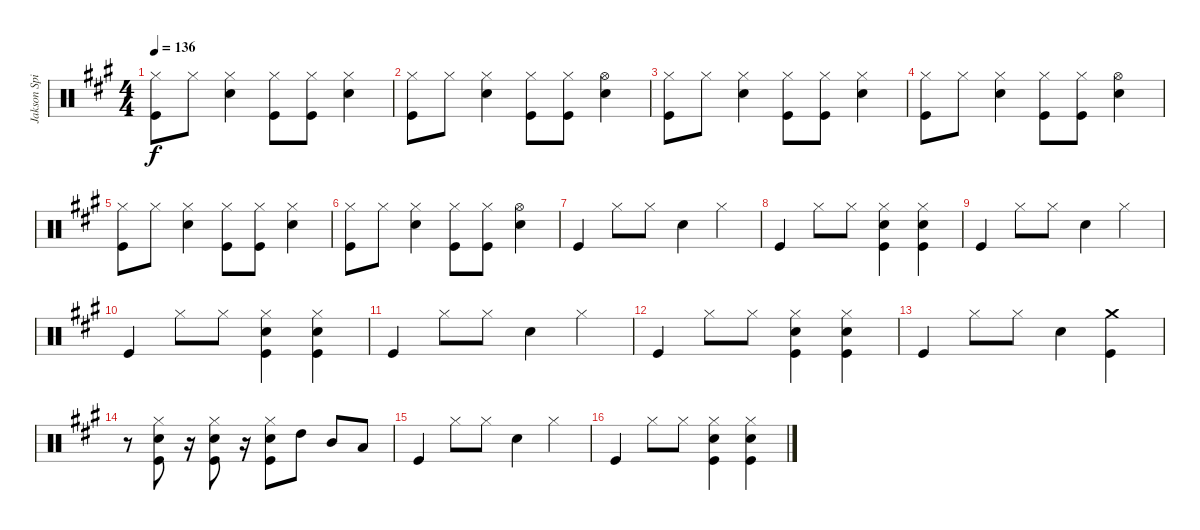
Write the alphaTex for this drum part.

\track ("Jakson Spires Drums" "Jakson Spi") {instrument percussion}
\staff {score}
\articulation defaults
\ts (4 4)
\tempo 136
\clef neutral
\ks a
("Hi-Hat (closed)" "Kick (hit)").8{dy f} "Hi-Hat (closed)".8 ("Hi-Hat (closed)" "Snare (hit) 2").4 ("Hi-Hat (closed)" "Kick (hit)").8 ("Hi-Hat (closed)" "Kick (hit)").8 ("Hi-Hat (closed)" "Snare (hit) 2").4 |
("Hi-Hat (closed)" "Kick (hit)").8 "Hi-Hat (closed)".8 ("Hi-Hat (closed)" "Snare (hit) 2").4 ("Hi-Hat (closed)" "Kick (hit)").8 ("Hi-Hat (closed)" "Kick (hit)").8 ("Hi-Hat (open)" "Snare (hit) 2").4 |
("Hi-Hat (closed)" "Kick (hit)").8 "Hi-Hat (closed)".8 ("Hi-Hat (closed)" "Snare (hit) 2").4 ("Hi-Hat (closed)" "Kick (hit)").8 ("Hi-Hat (closed)" "Kick (hit)").8 ("Hi-Hat (closed)" "Snare (hit) 2").4 |
("Hi-Hat (closed)" "Kick (hit)").8 "Hi-Hat (closed)".8 ("Hi-Hat (closed)" "Snare (hit) 2").4 ("Hi-Hat (closed)" "Kick (hit)").8 ("Hi-Hat (closed)" "Kick (hit)").8 ("Hi-Hat (open)" "Snare (hit) 2").4 |
("Hi-Hat (closed)" "Kick (hit)").8 "Hi-Hat (closed)".8 ("Hi-Hat (closed)" "Snare (hit) 2").4 ("Hi-Hat (closed)" "Kick (hit)").8 ("Hi-Hat (closed)" "Kick (hit)").8 ("Hi-Hat (closed)" "Snare (hit) 2").4 |
("Hi-Hat (closed)" "Kick (hit)").8 "Hi-Hat (closed)".8 ("Hi-Hat (closed)" "Snare (hit) 2").4 ("Hi-Hat (closed)" "Kick (hit)").8 ("Hi-Hat (closed)" "Kick (hit)").8 ("Hi-Hat (open)" "Snare (hit) 2").4 |
"Kick (hit)".4 "Hi-Hat (closed)".8 "Hi-Hat (closed)".8 "Snare (hit) 2".4 "Hi-Hat (closed)".4 |
"Kick (hit)".4 "Hi-Hat (closed)".8 "Hi-Hat (closed)".8 ("Hi-Hat (closed)" "Snare (hit) 2" "Kick (hit)").4 ("Hi-Hat (closed)" "Snare (hit) 2" "Kick (hit)").4 |
"Kick (hit)".4 "Hi-Hat (closed)".8 "Hi-Hat (closed)".8 "Snare (hit) 2".4 "Hi-Hat (closed)".4 |
"Kick (hit)".4 "Hi-Hat (closed)".8 "Hi-Hat (closed)".8 ("Hi-Hat (closed)" "Snare (hit) 2" "Kick (hit)").4 ("Hi-Hat (closed)" "Snare (hit) 2" "Kick (hit)").4 |
"Kick (hit)".4 "Hi-Hat (closed)".8 "Hi-Hat (closed)".8 "Snare (hit) 2".4 "Hi-Hat (closed)".4 |
"Kick (hit)".4 "Hi-Hat (closed)".8 "Hi-Hat (closed)".8 ("Hi-Hat (closed)" "Snare (hit) 2" "Kick (hit)").4 ("Hi-Hat (closed)" "Snare (hit) 2" "Kick (hit)").4 |
"Kick (hit)".4 "Hi-Hat (closed)".8 "Hi-Hat (closed)".8 "Snare (hit) 2".4 ("Crash medium (hit)" "Kick (hit)").4 |
r.8 ("Hi-Hat (closed)" "Snare (hit) 2" "Kick (hit)").8 r.16 ("Hi-Hat (closed)" "Snare (hit) 2" "Kick (hit)").8 r.16 ("Hi-Hat (closed)" "Snare (hit) 2" "Kick (hit)").8 "High Tom (hit)".8 "Mid Tom (hit)".8 "Low Tom (hit)".8 |
"Kick (hit)".4 "Hi-Hat (closed)".8 "Hi-Hat (closed)".8 "Snare (hit) 2".4 "Hi-Hat (closed)".4 |
"Kick (hit)".4 "Hi-Hat (closed)".8 "Hi-Hat (closed)".8 ("Hi-Hat (closed)" "Snare (hit) 2" "Kick (hit)").4 ("Hi-Hat (closed)" "Snare (hit) 2" "Kick (hit)").4
